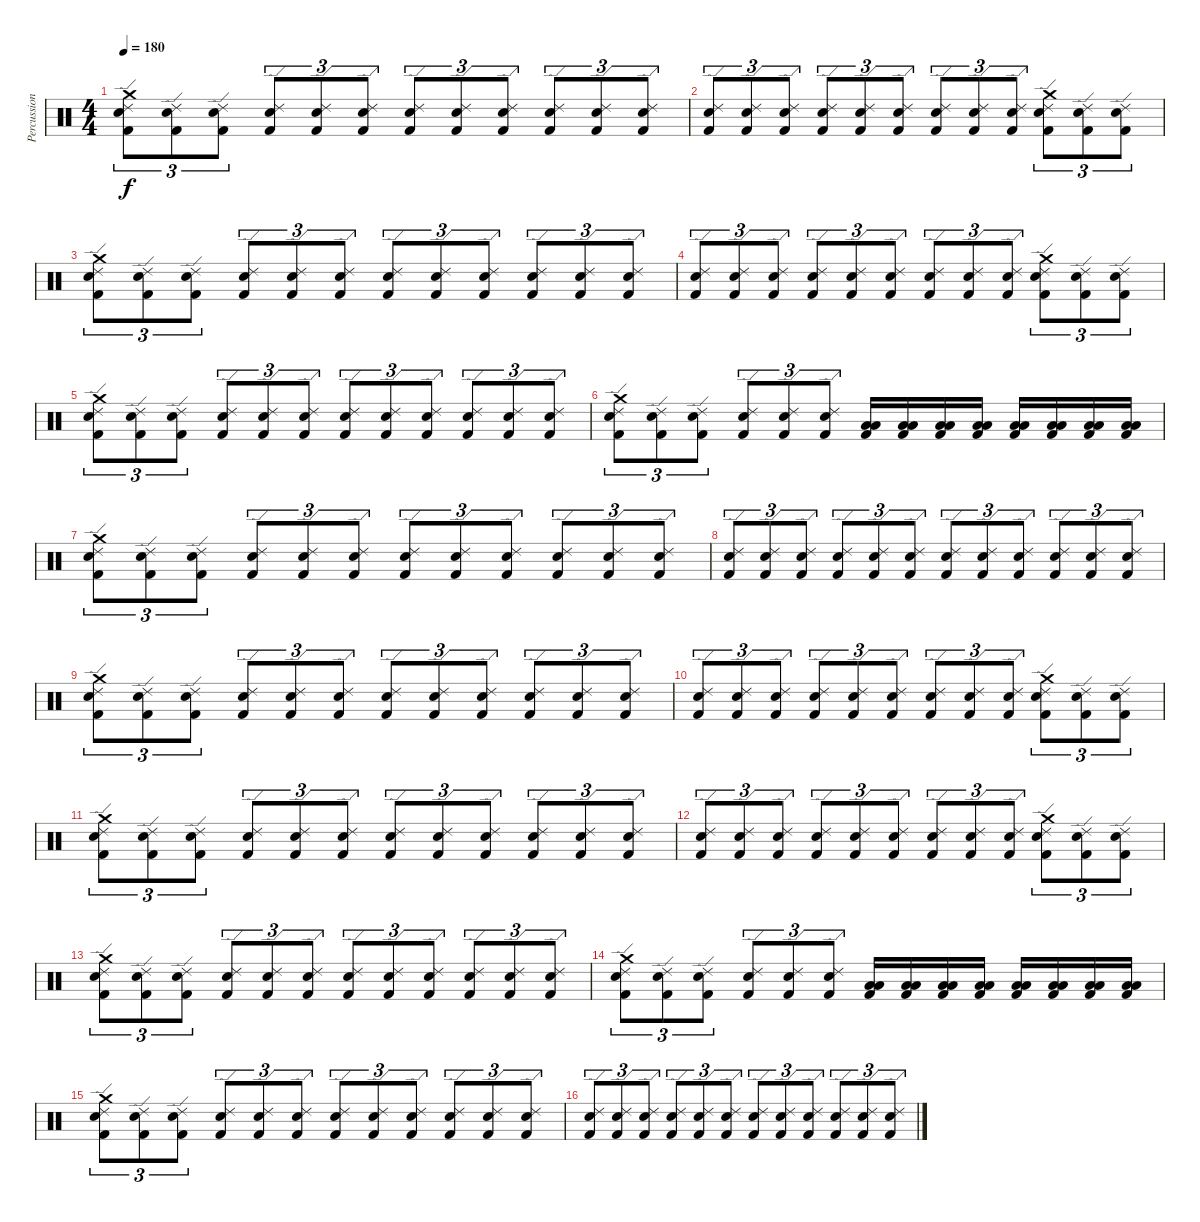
\track ("Percussioni" "Percussion") {instrument percussion}
\staff {score}
\articulation defaults
\ts (4 4)
\tempo 180
\clef neutral
\ks c
("Crash medium (hit)" "Ride (edge) 2" "Snare (hit) 2" "Kick (hit) 2").8{tu (3 2) dy f} ("Ride (edge) 2" "Snare (hit) 2" "Kick (hit) 2").8{tu (3 2)} ("Ride (edge) 2" "Snare (hit) 2" "Kick (hit) 2").8{tu (3 2)} ("Ride (edge) 2" "Snare (hit) 2" "Kick (hit) 2").8{tu (3 2)} ("Ride (edge) 2" "Snare (hit) 2" "Kick (hit) 2").8{tu (3 2)} ("Ride (edge) 2" "Snare (hit) 2" "Kick (hit) 2").8{tu (3 2)} ("Ride (edge) 2" "Snare (hit) 2" "Kick (hit) 2").8{tu (3 2)} ("Ride (edge) 2" "Snare (hit) 2" "Kick (hit) 2").8{tu (3 2)} ("Ride (edge) 2" "Snare (hit) 2" "Kick (hit) 2").8{tu (3 2)} ("Ride (edge) 2" "Snare (hit) 2" "Kick (hit) 2").8{tu (3 2)} ("Ride (edge) 2" "Snare (hit) 2" "Kick (hit) 2").8{tu (3 2)} ("Ride (edge) 2" "Snare (hit) 2" "Kick (hit) 2").8{tu (3 2)} |
("Ride (edge) 2" "Snare (hit) 2" "Kick (hit) 2").8{tu (3 2)} ("Ride (edge) 2" "Snare (hit) 2" "Kick (hit) 2").8{tu (3 2)} ("Ride (edge) 2" "Snare (hit) 2" "Kick (hit) 2").8{tu (3 2)} ("Ride (edge) 2" "Snare (hit) 2" "Kick (hit) 2").8{tu (3 2)} ("Ride (edge) 2" "Snare (hit) 2" "Kick (hit) 2").8{tu (3 2)} ("Ride (edge) 2" "Snare (hit) 2" "Kick (hit) 2").8{tu (3 2)} ("Ride (edge) 2" "Snare (hit) 2" "Kick (hit) 2").8{tu (3 2)} ("Ride (edge) 2" "Snare (hit) 2" "Kick (hit) 2").8{tu (3 2)} ("Ride (edge) 2" "Snare (hit) 2" "Kick (hit) 2").8{tu (3 2)} ("Crash medium (hit)" "Ride (edge) 2" "Snare (hit) 2" "Kick (hit) 2").8{tu (3 2)} ("Ride (edge) 2" "Snare (hit) 2" "Kick (hit) 2").8{tu (3 2)} ("Ride (edge) 2" "Snare (hit) 2" "Kick (hit) 2").8{tu (3 2)} |
("Crash medium (hit)" "Ride (edge) 2" "Snare (hit) 2" "Kick (hit) 2").8{tu (3 2)} ("Ride (edge) 2" "Snare (hit) 2" "Kick (hit) 2").8{tu (3 2)} ("Ride (edge) 2" "Snare (hit) 2" "Kick (hit) 2").8{tu (3 2)} ("Ride (edge) 2" "Snare (hit) 2" "Kick (hit) 2").8{tu (3 2)} ("Ride (edge) 2" "Snare (hit) 2" "Kick (hit) 2").8{tu (3 2)} ("Ride (edge) 2" "Snare (hit) 2" "Kick (hit) 2").8{tu (3 2)} ("Ride (edge) 2" "Snare (hit) 2" "Kick (hit) 2").8{tu (3 2)} ("Ride (edge) 2" "Snare (hit) 2" "Kick (hit) 2").8{tu (3 2)} ("Ride (edge) 2" "Snare (hit) 2" "Kick (hit) 2").8{tu (3 2)} ("Ride (edge) 2" "Snare (hit) 2" "Kick (hit) 2").8{tu (3 2)} ("Ride (edge) 2" "Snare (hit) 2" "Kick (hit) 2").8{tu (3 2)} ("Ride (edge) 2" "Snare (hit) 2" "Kick (hit) 2").8{tu (3 2)} |
("Ride (edge) 2" "Snare (hit) 2" "Kick (hit) 2").8{tu (3 2)} ("Ride (edge) 2" "Snare (hit) 2" "Kick (hit) 2").8{tu (3 2)} ("Ride (edge) 2" "Snare (hit) 2" "Kick (hit) 2").8{tu (3 2)} ("Ride (edge) 2" "Snare (hit) 2" "Kick (hit) 2").8{tu (3 2)} ("Ride (edge) 2" "Snare (hit) 2" "Kick (hit) 2").8{tu (3 2)} ("Ride (edge) 2" "Snare (hit) 2" "Kick (hit) 2").8{tu (3 2)} ("Ride (edge) 2" "Snare (hit) 2" "Kick (hit) 2").8{tu (3 2)} ("Ride (edge) 2" "Snare (hit) 2" "Kick (hit) 2").8{tu (3 2)} ("Ride (edge) 2" "Snare (hit) 2" "Kick (hit) 2").8{tu (3 2)} ("Crash medium (hit)" "Ride (edge) 2" "Snare (hit) 2" "Kick (hit) 2").8{tu (3 2)} ("Ride (edge) 2" "Snare (hit) 2" "Kick (hit) 2").8{tu (3 2)} ("Ride (edge) 2" "Snare (hit) 2" "Kick (hit) 2").8{tu (3 2)} |
("Crash medium (hit)" "Ride (edge) 2" "Snare (hit) 2" "Kick (hit) 2").8{tu (3 2)} ("Ride (edge) 2" "Snare (hit) 2" "Kick (hit) 2").8{tu (3 2)} ("Ride (edge) 2" "Snare (hit) 2" "Kick (hit) 2").8{tu (3 2)} ("Ride (edge) 2" "Snare (hit) 2" "Kick (hit) 2").8{tu (3 2)} ("Ride (edge) 2" "Snare (hit) 2" "Kick (hit) 2").8{tu (3 2)} ("Ride (edge) 2" "Snare (hit) 2" "Kick (hit) 2").8{tu (3 2)} ("Ride (edge) 2" "Snare (hit) 2" "Kick (hit) 2").8{tu (3 2)} ("Ride (edge) 2" "Snare (hit) 2" "Kick (hit) 2").8{tu (3 2)} ("Ride (edge) 2" "Snare (hit) 2" "Kick (hit) 2").8{tu (3 2)} ("Ride (edge) 2" "Snare (hit) 2" "Kick (hit) 2").8{tu (3 2)} ("Ride (edge) 2" "Snare (hit) 2" "Kick (hit) 2").8{tu (3 2)} ("Ride (edge) 2" "Snare (hit) 2" "Kick (hit) 2").8{tu (3 2)} |
("Crash medium (hit)" "Ride (edge) 2" "Snare (hit) 2" "Kick (hit) 2").8{tu (3 2)} ("Ride (edge) 2" "Snare (hit) 2" "Kick (hit) 2").8{tu (3 2)} ("Ride (edge) 2" "Snare (hit) 2" "Kick (hit) 2").8{tu (3 2)} ("Ride (edge) 2" "Snare (hit) 2" "Kick (hit) 2").8{tu (3 2)} ("Ride (edge) 2" "Snare (hit) 2" "Kick (hit) 2").8{tu (3 2)} ("Ride (edge) 2" "Snare (hit) 2" "Kick (hit) 2").8{tu (3 2)} ("Low Tom (hit)" "Low Floor Tom (hit)" "Kick (hit) 2").16 ("Low Tom (hit)" "Low Floor Tom (hit)" "Kick (hit) 2").16 ("Low Tom (hit)" "Low Floor Tom (hit)" "Kick (hit) 2").16 ("Low Tom (hit)" "Low Floor Tom (hit)" "Kick (hit) 2").16 ("Low Tom (hit)" "Low Floor Tom (hit)" "Kick (hit) 2").16 ("Low Tom (hit)" "Low Floor Tom (hit)" "Kick (hit) 2").16 ("Low Tom (hit)" "Low Floor Tom (hit)" "Kick (hit) 2").16 ("Low Tom (hit)" "Low Floor Tom (hit)" "Kick (hit) 2").16 |
("Crash medium (hit)" "Ride (edge) 2" "Snare (hit) 2" "Kick (hit) 2").8{tu (3 2)} ("Ride (edge) 2" "Snare (hit) 2" "Kick (hit) 2").8{tu (3 2)} ("Ride (edge) 2" "Snare (hit) 2" "Kick (hit) 2").8{tu (3 2)} ("Ride (edge) 2" "Snare (hit) 2" "Kick (hit) 2").8{tu (3 2)} ("Ride (edge) 2" "Snare (hit) 2" "Kick (hit) 2").8{tu (3 2)} ("Ride (edge) 2" "Snare (hit) 2" "Kick (hit) 2").8{tu (3 2)} ("Ride (edge) 2" "Snare (hit) 2" "Kick (hit) 2").8{tu (3 2)} ("Ride (edge) 2" "Snare (hit) 2" "Kick (hit) 2").8{tu (3 2)} ("Ride (edge) 2" "Snare (hit) 2" "Kick (hit) 2").8{tu (3 2)} ("Ride (edge) 2" "Snare (hit) 2" "Kick (hit) 2").8{tu (3 2)} ("Ride (edge) 2" "Snare (hit) 2" "Kick (hit) 2").8{tu (3 2)} ("Ride (edge) 2" "Snare (hit) 2" "Kick (hit) 2").8{tu (3 2)} |
("Ride (edge) 2" "Snare (hit) 2" "Kick (hit) 2").8{tu (3 2)} ("Ride (edge) 2" "Snare (hit) 2" "Kick (hit) 2").8{tu (3 2)} ("Ride (edge) 2" "Snare (hit) 2" "Kick (hit) 2").8{tu (3 2)} ("Ride (edge) 2" "Snare (hit) 2" "Kick (hit) 2").8{tu (3 2)} ("Ride (edge) 2" "Snare (hit) 2" "Kick (hit) 2").8{tu (3 2)} ("Ride (edge) 2" "Snare (hit) 2" "Kick (hit) 2").8{tu (3 2)} ("Ride (edge) 2" "Snare (hit) 2" "Kick (hit) 2").8{tu (3 2)} ("Ride (edge) 2" "Snare (hit) 2" "Kick (hit) 2").8{tu (3 2)} ("Ride (edge) 2" "Snare (hit) 2" "Kick (hit) 2").8{tu (3 2)} ("Ride (edge) 2" "Snare (hit) 2" "Kick (hit) 2").8{tu (3 2)} ("Ride (edge) 2" "Snare (hit) 2" "Kick (hit) 2").8{tu (3 2)} ("Ride (edge) 2" "Snare (hit) 2" "Kick (hit) 2").8{tu (3 2)} |
("Crash medium (hit)" "Ride (edge) 2" "Snare (hit) 2" "Kick (hit) 2").8{tu (3 2)} ("Ride (edge) 2" "Snare (hit) 2" "Kick (hit) 2").8{tu (3 2)} ("Ride (edge) 2" "Snare (hit) 2" "Kick (hit) 2").8{tu (3 2)} ("Ride (edge) 2" "Snare (hit) 2" "Kick (hit) 2").8{tu (3 2)} ("Ride (edge) 2" "Snare (hit) 2" "Kick (hit) 2").8{tu (3 2)} ("Ride (edge) 2" "Snare (hit) 2" "Kick (hit) 2").8{tu (3 2)} ("Ride (edge) 2" "Snare (hit) 2" "Kick (hit) 2").8{tu (3 2)} ("Ride (edge) 2" "Snare (hit) 2" "Kick (hit) 2").8{tu (3 2)} ("Ride (edge) 2" "Snare (hit) 2" "Kick (hit) 2").8{tu (3 2)} ("Ride (edge) 2" "Snare (hit) 2" "Kick (hit) 2").8{tu (3 2)} ("Ride (edge) 2" "Snare (hit) 2" "Kick (hit) 2").8{tu (3 2)} ("Ride (edge) 2" "Snare (hit) 2" "Kick (hit) 2").8{tu (3 2)} |
("Ride (edge) 2" "Snare (hit) 2" "Kick (hit) 2").8{tu (3 2)} ("Ride (edge) 2" "Snare (hit) 2" "Kick (hit) 2").8{tu (3 2)} ("Ride (edge) 2" "Snare (hit) 2" "Kick (hit) 2").8{tu (3 2)} ("Ride (edge) 2" "Snare (hit) 2" "Kick (hit) 2").8{tu (3 2)} ("Ride (edge) 2" "Snare (hit) 2" "Kick (hit) 2").8{tu (3 2)} ("Ride (edge) 2" "Snare (hit) 2" "Kick (hit) 2").8{tu (3 2)} ("Ride (edge) 2" "Snare (hit) 2" "Kick (hit) 2").8{tu (3 2)} ("Ride (edge) 2" "Snare (hit) 2" "Kick (hit) 2").8{tu (3 2)} ("Ride (edge) 2" "Snare (hit) 2" "Kick (hit) 2").8{tu (3 2)} ("Crash medium (hit)" "Ride (edge) 2" "Snare (hit) 2" "Kick (hit) 2").8{tu (3 2)} ("Ride (edge) 2" "Snare (hit) 2" "Kick (hit) 2").8{tu (3 2)} ("Ride (edge) 2" "Snare (hit) 2" "Kick (hit) 2").8{tu (3 2)} |
("Crash medium (hit)" "Ride (edge) 2" "Snare (hit) 2" "Kick (hit) 2").8{tu (3 2)} ("Ride (edge) 2" "Snare (hit) 2" "Kick (hit) 2").8{tu (3 2)} ("Ride (edge) 2" "Snare (hit) 2" "Kick (hit) 2").8{tu (3 2)} ("Ride (edge) 2" "Snare (hit) 2" "Kick (hit) 2").8{tu (3 2)} ("Ride (edge) 2" "Snare (hit) 2" "Kick (hit) 2").8{tu (3 2)} ("Ride (edge) 2" "Snare (hit) 2" "Kick (hit) 2").8{tu (3 2)} ("Ride (edge) 2" "Snare (hit) 2" "Kick (hit) 2").8{tu (3 2)} ("Ride (edge) 2" "Snare (hit) 2" "Kick (hit) 2").8{tu (3 2)} ("Ride (edge) 2" "Snare (hit) 2" "Kick (hit) 2").8{tu (3 2)} ("Ride (edge) 2" "Snare (hit) 2" "Kick (hit) 2").8{tu (3 2)} ("Ride (edge) 2" "Snare (hit) 2" "Kick (hit) 2").8{tu (3 2)} ("Ride (edge) 2" "Snare (hit) 2" "Kick (hit) 2").8{tu (3 2)} |
("Ride (edge) 2" "Snare (hit) 2" "Kick (hit) 2").8{tu (3 2)} ("Ride (edge) 2" "Snare (hit) 2" "Kick (hit) 2").8{tu (3 2)} ("Ride (edge) 2" "Snare (hit) 2" "Kick (hit) 2").8{tu (3 2)} ("Ride (edge) 2" "Snare (hit) 2" "Kick (hit) 2").8{tu (3 2)} ("Ride (edge) 2" "Snare (hit) 2" "Kick (hit) 2").8{tu (3 2)} ("Ride (edge) 2" "Snare (hit) 2" "Kick (hit) 2").8{tu (3 2)} ("Ride (edge) 2" "Snare (hit) 2" "Kick (hit) 2").8{tu (3 2)} ("Ride (edge) 2" "Snare (hit) 2" "Kick (hit) 2").8{tu (3 2)} ("Ride (edge) 2" "Snare (hit) 2" "Kick (hit) 2").8{tu (3 2)} ("Crash medium (hit)" "Ride (edge) 2" "Snare (hit) 2" "Kick (hit) 2").8{tu (3 2)} ("Ride (edge) 2" "Snare (hit) 2" "Kick (hit) 2").8{tu (3 2)} ("Ride (edge) 2" "Snare (hit) 2" "Kick (hit) 2").8{tu (3 2)} |
("Crash medium (hit)" "Ride (edge) 2" "Snare (hit) 2" "Kick (hit) 2").8{tu (3 2)} ("Ride (edge) 2" "Snare (hit) 2" "Kick (hit) 2").8{tu (3 2)} ("Ride (edge) 2" "Snare (hit) 2" "Kick (hit) 2").8{tu (3 2)} ("Ride (edge) 2" "Snare (hit) 2" "Kick (hit) 2").8{tu (3 2)} ("Ride (edge) 2" "Snare (hit) 2" "Kick (hit) 2").8{tu (3 2)} ("Ride (edge) 2" "Snare (hit) 2" "Kick (hit) 2").8{tu (3 2)} ("Ride (edge) 2" "Snare (hit) 2" "Kick (hit) 2").8{tu (3 2)} ("Ride (edge) 2" "Snare (hit) 2" "Kick (hit) 2").8{tu (3 2)} ("Ride (edge) 2" "Snare (hit) 2" "Kick (hit) 2").8{tu (3 2)} ("Ride (edge) 2" "Snare (hit) 2" "Kick (hit) 2").8{tu (3 2)} ("Ride (edge) 2" "Snare (hit) 2" "Kick (hit) 2").8{tu (3 2)} ("Ride (edge) 2" "Snare (hit) 2" "Kick (hit) 2").8{tu (3 2)} |
("Crash medium (hit)" "Ride (edge) 2" "Snare (hit) 2" "Kick (hit) 2").8{tu (3 2)} ("Ride (edge) 2" "Snare (hit) 2" "Kick (hit) 2").8{tu (3 2)} ("Ride (edge) 2" "Snare (hit) 2" "Kick (hit) 2").8{tu (3 2)} ("Ride (edge) 2" "Snare (hit) 2" "Kick (hit) 2").8{tu (3 2)} ("Ride (edge) 2" "Snare (hit) 2" "Kick (hit) 2").8{tu (3 2)} ("Ride (edge) 2" "Snare (hit) 2" "Kick (hit) 2").8{tu (3 2)} ("Low Tom (hit)" "Low Floor Tom (hit)" "Kick (hit) 2").16 ("Low Tom (hit)" "Low Floor Tom (hit)" "Kick (hit) 2").16 ("Low Tom (hit)" "Low Floor Tom (hit)" "Kick (hit) 2").16 ("Low Tom (hit)" "Low Floor Tom (hit)" "Kick (hit) 2").16 ("Low Tom (hit)" "Low Floor Tom (hit)" "Kick (hit) 2").16 ("Low Tom (hit)" "Low Floor Tom (hit)" "Kick (hit) 2").16 ("Low Tom (hit)" "Low Floor Tom (hit)" "Kick (hit) 2").16 ("Low Tom (hit)" "Low Floor Tom (hit)" "Kick (hit) 2").16 |
("Crash medium (hit)" "Ride (edge) 2" "Snare (hit) 2" "Kick (hit) 2").8{tu (3 2)} ("Ride (edge) 2" "Snare (hit) 2" "Kick (hit) 2").8{tu (3 2)} ("Ride (edge) 2" "Snare (hit) 2" "Kick (hit) 2").8{tu (3 2)} ("Ride (edge) 2" "Snare (hit) 2" "Kick (hit) 2").8{tu (3 2)} ("Ride (edge) 2" "Snare (hit) 2" "Kick (hit) 2").8{tu (3 2)} ("Ride (edge) 2" "Snare (hit) 2" "Kick (hit) 2").8{tu (3 2)} ("Ride (edge) 2" "Snare (hit) 2" "Kick (hit) 2").8{tu (3 2)} ("Ride (edge) 2" "Snare (hit) 2" "Kick (hit) 2").8{tu (3 2)} ("Ride (edge) 2" "Snare (hit) 2" "Kick (hit) 2").8{tu (3 2)} ("Ride (edge) 2" "Snare (hit) 2" "Kick (hit) 2").8{tu (3 2)} ("Ride (edge) 2" "Snare (hit) 2" "Kick (hit) 2").8{tu (3 2)} ("Ride (edge) 2" "Snare (hit) 2" "Kick (hit) 2").8{tu (3 2)} |
("Ride (edge) 2" "Snare (hit) 2" "Kick (hit) 2").8{tu (3 2)} ("Ride (edge) 2" "Snare (hit) 2" "Kick (hit) 2").8{tu (3 2)} ("Ride (edge) 2" "Snare (hit) 2" "Kick (hit) 2").8{tu (3 2)} ("Ride (edge) 2" "Snare (hit) 2" "Kick (hit) 2").8{tu (3 2)} ("Ride (edge) 2" "Snare (hit) 2" "Kick (hit) 2").8{tu (3 2)} ("Ride (edge) 2" "Snare (hit) 2" "Kick (hit) 2").8{tu (3 2)} ("Ride (edge) 2" "Snare (hit) 2" "Kick (hit) 2").8{tu (3 2)} ("Ride (edge) 2" "Snare (hit) 2" "Kick (hit) 2").8{tu (3 2)} ("Ride (edge) 2" "Snare (hit) 2" "Kick (hit) 2").8{tu (3 2)} ("Ride (edge) 2" "Snare (hit) 2" "Kick (hit) 2").8{tu (3 2)} ("Ride (edge) 2" "Snare (hit) 2" "Kick (hit) 2").8{tu (3 2)} ("Ride (edge) 2" "Snare (hit) 2" "Kick (hit) 2").8{tu (3 2)}
